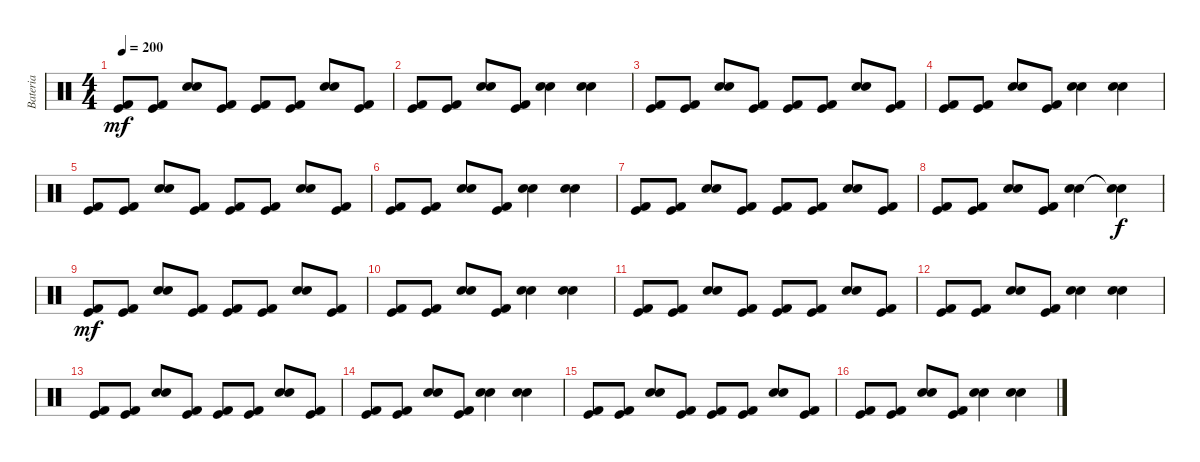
\track ("Bateria" "Bateria") {instrument percussion}
\staff {score}
\articulation defaults
\ts (4 4)
\tempo 200
\clef neutral
\ks c
("Kick (hit)" "Kick (hit) 2").8{dy mf} ("Kick (hit)" "Kick (hit) 2").8 ("Electric Snare (hit)" "Snare (hit) 2").8 ("Kick (hit)" "Kick (hit) 2").8 ("Kick (hit)" "Kick (hit) 2").8 ("Kick (hit)" "Kick (hit) 2").8 ("Electric Snare (hit)" "Snare (hit) 2").8 ("Kick (hit)" "Kick (hit) 2").8 |
("Kick (hit)" "Kick (hit) 2").8 ("Kick (hit)" "Kick (hit) 2").8 ("Electric Snare (hit)" "Snare (hit) 2").8 ("Kick (hit)" "Kick (hit) 2").8 ("Electric Snare (hit)" "Snare (hit) 2").4 ("Electric Snare (hit)" "Snare (hit) 2").4 |
("Kick (hit)" "Kick (hit) 2").8 ("Kick (hit)" "Kick (hit) 2").8 ("Electric Snare (hit)" "Snare (hit) 2").8 ("Kick (hit)" "Kick (hit) 2").8 ("Kick (hit)" "Kick (hit) 2").8 ("Kick (hit)" "Kick (hit) 2").8 ("Electric Snare (hit)" "Snare (hit) 2").8 ("Kick (hit)" "Kick (hit) 2").8 |
("Kick (hit)" "Kick (hit) 2").8 ("Kick (hit)" "Kick (hit) 2").8 ("Electric Snare (hit)" "Snare (hit) 2").8 ("Kick (hit)" "Kick (hit) 2").8 ("Electric Snare (hit)" "Snare (hit) 2").4 ("Electric Snare (hit)" "Snare (hit) 2").4 |
("Kick (hit)" "Kick (hit) 2").8 ("Kick (hit)" "Kick (hit) 2").8 ("Electric Snare (hit)" "Snare (hit) 2").8 ("Kick (hit)" "Kick (hit) 2").8 ("Kick (hit)" "Kick (hit) 2").8 ("Kick (hit)" "Kick (hit) 2").8 ("Electric Snare (hit)" "Snare (hit) 2").8 ("Kick (hit)" "Kick (hit) 2").8 |
("Kick (hit)" "Kick (hit) 2").8 ("Kick (hit)" "Kick (hit) 2").8 ("Electric Snare (hit)" "Snare (hit) 2").8 ("Kick (hit)" "Kick (hit) 2").8 ("Electric Snare (hit)" "Snare (hit) 2").4 ("Electric Snare (hit)" "Snare (hit) 2").4 |
("Kick (hit)" "Kick (hit) 2").8 ("Kick (hit)" "Kick (hit) 2").8 ("Electric Snare (hit)" "Snare (hit) 2").8 ("Kick (hit)" "Kick (hit) 2").8 ("Kick (hit)" "Kick (hit) 2").8 ("Kick (hit)" "Kick (hit) 2").8 ("Electric Snare (hit)" "Snare (hit) 2").8 ("Kick (hit)" "Kick (hit) 2").8 |
("Kick (hit)" "Kick (hit) 2").8 ("Kick (hit)" "Kick (hit) 2").8 ("Electric Snare (hit)" "Snare (hit) 2").8 ("Kick (hit)" "Kick (hit) 2").8 ("Electric Snare (hit)" "Snare (hit) 2").4 ("Electric Snare (hit)"{t} "Snare (hit) 2"{t}).4{dy f} |
("Kick (hit)" "Kick (hit) 2").8{dy mf} ("Kick (hit)" "Kick (hit) 2").8 ("Electric Snare (hit)" "Snare (hit) 2").8 ("Kick (hit)" "Kick (hit) 2").8 ("Kick (hit)" "Kick (hit) 2").8 ("Kick (hit)" "Kick (hit) 2").8 ("Electric Snare (hit)" "Snare (hit) 2").8 ("Kick (hit)" "Kick (hit) 2").8 |
("Kick (hit)" "Kick (hit) 2").8 ("Kick (hit)" "Kick (hit) 2").8 ("Electric Snare (hit)" "Snare (hit) 2").8 ("Kick (hit)" "Kick (hit) 2").8 ("Electric Snare (hit)" "Snare (hit) 2").4 ("Electric Snare (hit)" "Snare (hit) 2").4 |
("Kick (hit)" "Kick (hit) 2").8 ("Kick (hit)" "Kick (hit) 2").8 ("Electric Snare (hit)" "Snare (hit) 2").8 ("Kick (hit)" "Kick (hit) 2").8 ("Kick (hit)" "Kick (hit) 2").8 ("Kick (hit)" "Kick (hit) 2").8 ("Electric Snare (hit)" "Snare (hit) 2").8 ("Kick (hit)" "Kick (hit) 2").8 |
("Kick (hit)" "Kick (hit) 2").8 ("Kick (hit)" "Kick (hit) 2").8 ("Electric Snare (hit)" "Snare (hit) 2").8 ("Kick (hit)" "Kick (hit) 2").8 ("Electric Snare (hit)" "Snare (hit) 2").4 ("Electric Snare (hit)" "Snare (hit) 2").4 |
("Kick (hit)" "Kick (hit) 2").8 ("Kick (hit)" "Kick (hit) 2").8 ("Electric Snare (hit)" "Snare (hit) 2").8 ("Kick (hit)" "Kick (hit) 2").8 ("Kick (hit)" "Kick (hit) 2").8 ("Kick (hit)" "Kick (hit) 2").8 ("Electric Snare (hit)" "Snare (hit) 2").8 ("Kick (hit)" "Kick (hit) 2").8 |
("Kick (hit)" "Kick (hit) 2").8 ("Kick (hit)" "Kick (hit) 2").8 ("Electric Snare (hit)" "Snare (hit) 2").8 ("Kick (hit)" "Kick (hit) 2").8 ("Electric Snare (hit)" "Snare (hit) 2").4 ("Electric Snare (hit)" "Snare (hit) 2").4 |
("Kick (hit)" "Kick (hit) 2").8 ("Kick (hit)" "Kick (hit) 2").8 ("Electric Snare (hit)" "Snare (hit) 2").8 ("Kick (hit)" "Kick (hit) 2").8 ("Kick (hit)" "Kick (hit) 2").8 ("Kick (hit)" "Kick (hit) 2").8 ("Electric Snare (hit)" "Snare (hit) 2").8 ("Kick (hit)" "Kick (hit) 2").8 |
("Kick (hit)" "Kick (hit) 2").8 ("Kick (hit)" "Kick (hit) 2").8 ("Electric Snare (hit)" "Snare (hit) 2").8 ("Kick (hit)" "Kick (hit) 2").8 ("Electric Snare (hit)" "Snare (hit) 2").4 ("Electric Snare (hit)" "Snare (hit) 2").4
